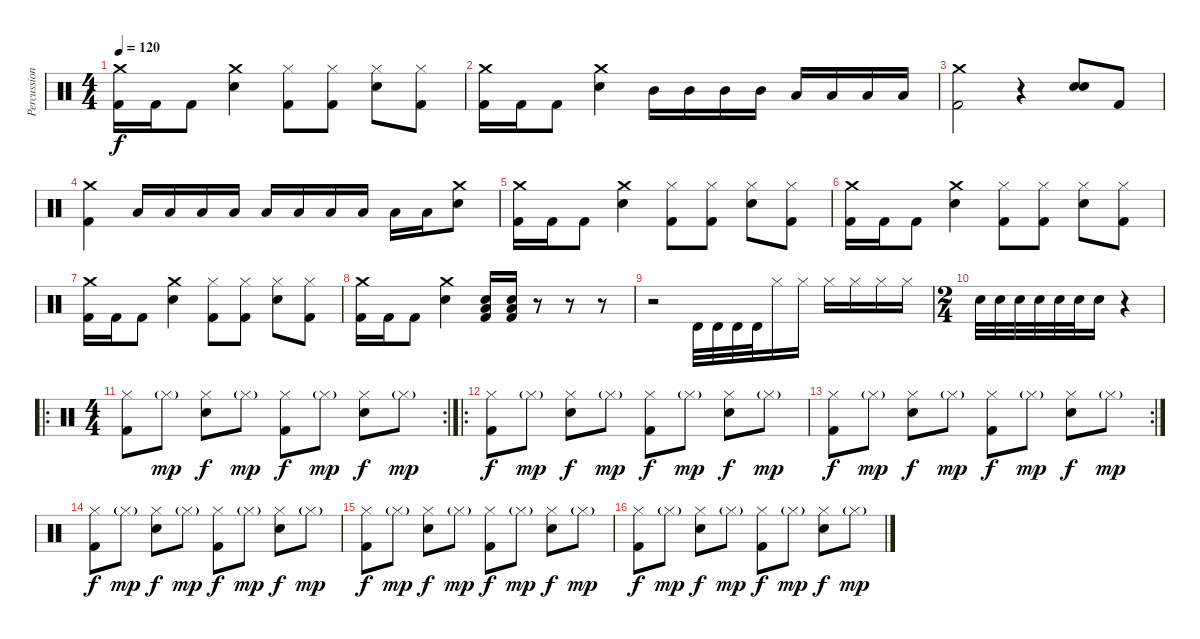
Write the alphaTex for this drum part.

\track ("Percussion" "Percussion") {instrument percussion}
\staff {score}
\articulation defaults
\ts (4 4)
\tempo 120
\clef neutral
\ks c
("Crash medium (hit)" "Kick (hit) 2").16{dy f} "Kick (hit) 2".16 "Kick (hit) 2".8 ("Crash medium (hit)" "Electric Snare (hit)").4 ("Hi-Hat (closed)" "Kick (hit) 2").8 ("Hi-Hat (closed)" "Kick (hit) 2").8 ("Hi-Hat (closed)" "Electric Snare (hit)").8 ("Hi-Hat (closed)" "Kick (hit) 2").8 |
("Crash medium (hit)" "Kick (hit) 2").16 "Kick (hit) 2".16 "Kick (hit) 2".8 ("Crash medium (hit)" "Electric Snare (hit)").4 "Mid Tom (hit)".16 "Mid Tom (hit)".16 "Mid Tom (hit)".16 "Mid Tom (hit)".16 "Low Tom (hit)".16 "Low Tom (hit)".16 "Low Tom (hit)".16 "Low Tom (hit)".16 |
("Crash medium (hit)" "Kick (hit) 2").2 r.4 ("Electric Snare (hit)" "Electric Snare (hit)").8 "Kick (hit) 2".8 |
("Crash medium (hit)" "Kick (hit) 2").4 "Low Floor Tom (hit)".16 "Low Floor Tom (hit)".16 "Low Floor Tom (hit)".16 "Low Floor Tom (hit)".16 "Low Floor Tom (hit)".16 "Low Floor Tom (hit)".16 "Low Floor Tom (hit)".16 "Low Floor Tom (hit)".16 "Low Floor Tom (hit)".16 "Low Floor Tom (hit)".16 ("Crash medium (hit)" "Electric Snare (hit)").8 |
("Crash medium (hit)" "Kick (hit) 2").16 "Kick (hit) 2".16 "Kick (hit) 2".8 ("Crash medium (hit)" "Electric Snare (hit)").4 ("Hi-Hat (closed)" "Kick (hit) 2").8 ("Hi-Hat (closed)" "Kick (hit) 2").8 ("Hi-Hat (closed)" "Electric Snare (hit)").8 ("Hi-Hat (closed)" "Kick (hit) 2").8 |
("Crash medium (hit)" "Kick (hit) 2").16 "Kick (hit) 2".16 "Kick (hit) 2".8 ("Crash medium (hit)" "Electric Snare (hit)").4 ("Hi-Hat (closed)" "Kick (hit) 2").8 ("Hi-Hat (closed)" "Kick (hit) 2").8 ("Hi-Hat (closed)" "Electric Snare (hit)").8 ("Hi-Hat (closed)" "Kick (hit) 2").8 |
("Crash medium (hit)" "Kick (hit) 2").16 "Kick (hit) 2".16 "Kick (hit) 2".8 ("Crash medium (hit)" "Electric Snare (hit)").4 ("Hi-Hat (closed)" "Kick (hit) 2").8 ("Hi-Hat (closed)" "Kick (hit) 2").8 ("Hi-Hat (closed)" "Electric Snare (hit)").8 ("Hi-Hat (closed)" "Kick (hit) 2").8 |
("Crash medium (hit)" "Kick (hit) 2").16 "Kick (hit) 2".16 "Kick (hit) 2".8 ("Crash medium (hit)" "Electric Snare (hit)").4 ("Electric Snare (hit)" "Low Floor Tom (hit)" "Kick (hit) 2").16 ("Electric Snare (hit)" "Low Floor Tom (hit)" "Kick (hit) 2").16 r.8 r.8 r.8 |
r.2 "Timbale high (hit)".32 "Timbale high (hit)".32 "Timbale high (hit)".32 "Timbale high (hit)".32 "Hi-Hat (closed)".16 "Hi-Hat (closed)".16 "Hi-Hat (closed)".16 "Hi-Hat (closed)".16 "Hi-Hat (closed)".16 "Hi-Hat (closed)".16 |
\ts (2 4)
"Electric Snare (hit)".32 "Electric Snare (hit)".32 "Electric Snare (hit)".32 "Electric Snare (hit)".32 "Electric Snare (hit)".32 "Electric Snare (hit)".32 "Electric Snare (hit)".16 r.4 |
\ro
\rc 2
\ts (4 4)
("Hi-Hat (closed)" "Kick (hit) 2").8 "Hi-Hat (closed)"{g}.8{dy mp} ("Hi-Hat (closed)" "Electric Snare (hit)").8{dy f} "Hi-Hat (closed)"{g}.8{dy mp} ("Hi-Hat (closed)" "Kick (hit) 2").8{dy f} "Hi-Hat (closed)"{g}.8{dy mp} ("Hi-Hat (closed)" "Electric Snare (hit)").8{dy f} "Hi-Hat (closed)"{g}.8{dy mp} |
\ro
("Hi-Hat (closed)" "Kick (hit) 2").8{dy f} "Hi-Hat (closed)"{g}.8{dy mp} ("Hi-Hat (closed)" "Electric Snare (hit)").8{dy f} "Hi-Hat (closed)"{g}.8{dy mp} ("Hi-Hat (closed)" "Kick (hit) 2").8{dy f} "Hi-Hat (closed)"{g}.8{dy mp} ("Hi-Hat (closed)" "Electric Snare (hit)").8{dy f} "Hi-Hat (closed)"{g}.8{dy mp} |
\rc 2
("Hi-Hat (closed)" "Kick (hit) 2").8{dy f} "Hi-Hat (closed)"{g}.8{dy mp} ("Hi-Hat (closed)" "Electric Snare (hit)").8{dy f} "Hi-Hat (closed)"{g}.8{dy mp} ("Hi-Hat (closed)" "Kick (hit) 2").8{dy f} "Hi-Hat (closed)"{g}.8{dy mp} ("Hi-Hat (closed)" "Electric Snare (hit)").8{dy f} "Hi-Hat (closed)"{g}.8{dy mp} |
("Hi-Hat (closed)" "Kick (hit) 2").8{dy f} "Hi-Hat (closed)"{g}.8{dy mp} ("Hi-Hat (closed)" "Electric Snare (hit)").8{dy f} "Hi-Hat (closed)"{g}.8{dy mp} ("Hi-Hat (closed)" "Kick (hit) 2").8{dy f} "Hi-Hat (closed)"{g}.8{dy mp} ("Hi-Hat (closed)" "Electric Snare (hit)").8{dy f} "Hi-Hat (closed)"{g}.8{dy mp} |
("Hi-Hat (closed)" "Kick (hit) 2").8{dy f} "Hi-Hat (closed)"{g}.8{dy mp} ("Hi-Hat (closed)" "Electric Snare (hit)").8{dy f} "Hi-Hat (closed)"{g}.8{dy mp} ("Hi-Hat (closed)" "Kick (hit) 2").8{dy f} "Hi-Hat (closed)"{g}.8{dy mp} ("Hi-Hat (closed)" "Electric Snare (hit)").8{dy f} "Hi-Hat (closed)"{g}.8{dy mp} |
("Hi-Hat (closed)" "Kick (hit) 2").8{dy f} "Hi-Hat (closed)"{g}.8{dy mp} ("Hi-Hat (closed)" "Electric Snare (hit)").8{dy f} "Hi-Hat (closed)"{g}.8{dy mp} ("Hi-Hat (closed)" "Kick (hit) 2").8{dy f} "Hi-Hat (closed)"{g}.8{dy mp} ("Hi-Hat (closed)" "Electric Snare (hit)").8{dy f} "Hi-Hat (closed)"{g}.8{dy mp}
